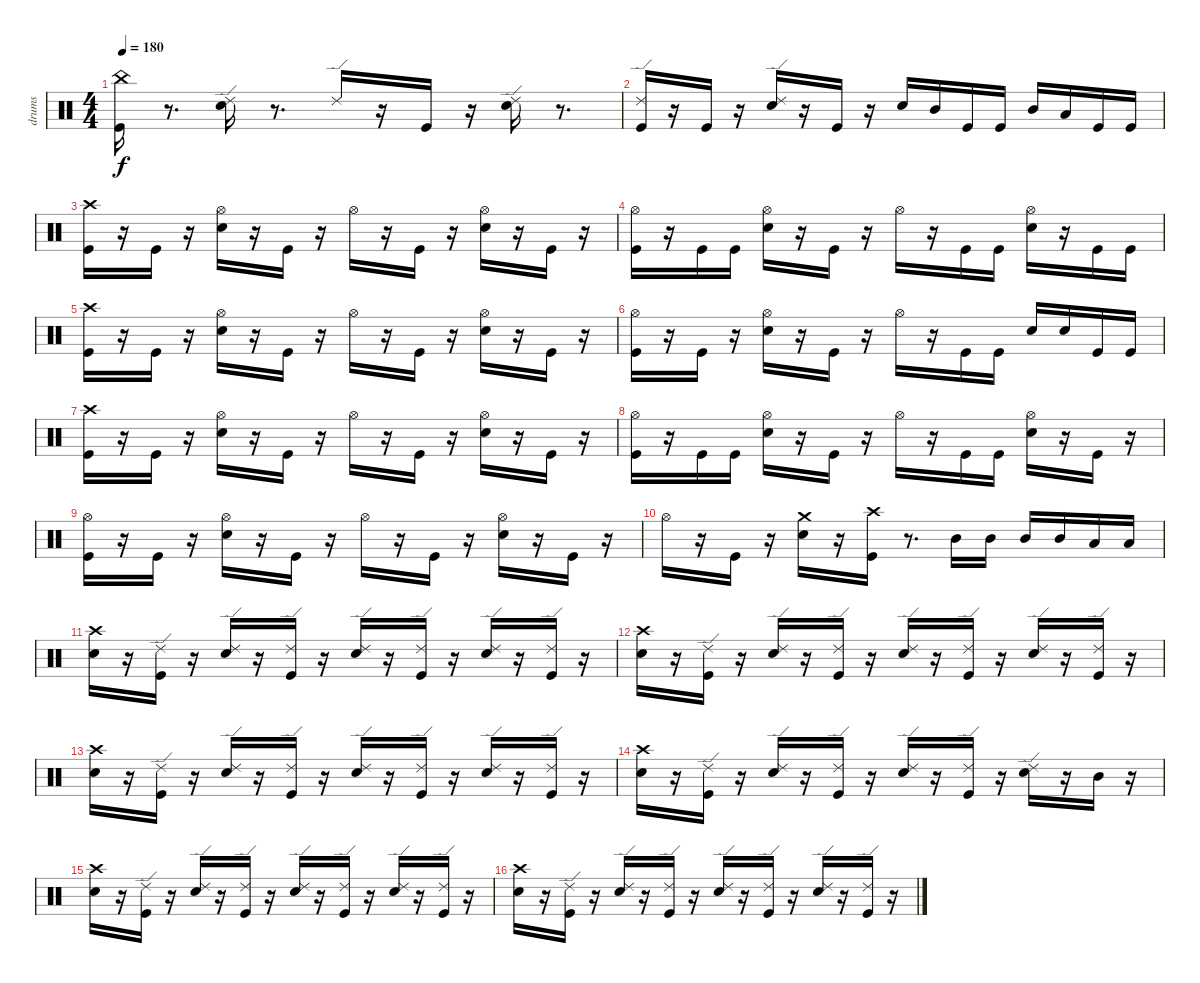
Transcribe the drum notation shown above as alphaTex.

\track ("drums" "drums") {instrument percussion}
\staff {score}
\articulation defaults
\ts (4 4)
\tempo 180
\clef neutral
\ks c
("China (hit)" "Kick (hit)").16{dy f} r.8{d} ("Ride (edge) 2" "Snare (hit) 2").16 r.8{d} "Ride (edge) 2".16 r.16 "Kick (hit)".16 r.16 ("Ride (edge) 2" "Snare (hit) 2").16 r.8{d} |
("Kick (hit)" "Ride (edge) 2").16 r.16 "Kick (hit)".16 r.16 ("Snare (hit) 2" "Ride (edge) 2").16 r.16 "Kick (hit)".16 r.16 "Snare (hit) 2".16 "Mid Tom (hit)".16 "Kick (hit)".16 "Kick (hit)".16 "Mid Tom (hit)".16 "Low Tom (hit)".16 "Kick (hit)".16 "Kick (hit)".16 |
("Crash high (hit)" "Kick (hit)").16 r.16 "Kick (hit)".16 r.16 ("Hi-Hat (open)" "Snare (hit) 2").16 r.16 "Kick (hit)".16 r.16 "Hi-Hat (open)".16 r.16 "Kick (hit)".16 r.16 ("Hi-Hat (open)" "Snare (hit) 2").16 r.16 "Kick (hit)".16 r.16 |
("Hi-Hat (open)" "Kick (hit)").16 r.16 "Kick (hit)".16 "Kick (hit)".16 ("Hi-Hat (open)" "Snare (hit) 2").16 r.16 "Kick (hit)".16 r.16 "Hi-Hat (open)".16 r.16 "Kick (hit)".16 "Kick (hit)".16 ("Hi-Hat (open)" "Snare (hit) 2").16 r.16 "Kick (hit)".16 "Kick (hit)".16 |
("Crash high (hit)" "Kick (hit)").16 r.16 "Kick (hit)".16 r.16 ("Hi-Hat (open)" "Snare (hit) 2").16 r.16 "Kick (hit)".16 r.16 "Hi-Hat (open)".16 r.16 "Kick (hit)".16 r.16 ("Hi-Hat (open)" "Snare (hit) 2").16 r.16 "Kick (hit)".16 r.16 |
("Hi-Hat (open)" "Kick (hit)").16 r.16 "Kick (hit)".16 r.16 ("Hi-Hat (open)" "Snare (hit) 2").16 r.16 "Kick (hit)".16 r.16 "Hi-Hat (open)".16 r.16 "Kick (hit)".16 "Kick (hit)".16 "Snare (hit) 2".16 "Snare (hit) 2".16 "Kick (hit)".16 "Kick (hit)".16 |
("Crash high (hit)" "Kick (hit)").16 r.16 "Kick (hit)".16 r.16 ("Hi-Hat (open)" "Snare (hit) 2").16 r.16 "Kick (hit)".16 r.16 "Hi-Hat (open)".16 r.16 "Kick (hit)".16 r.16 ("Hi-Hat (open)" "Snare (hit) 2").16 r.16 "Kick (hit)".16 r.16 |
("Hi-Hat (open)" "Kick (hit)").16 r.16 "Kick (hit)".16 "Kick (hit)".16 ("Hi-Hat (open)" "Snare (hit) 2").16 r.16 "Kick (hit)".16 r.16 "Hi-Hat (open)".16 r.16 "Kick (hit)".16 "Kick (hit)".16 ("Hi-Hat (open)" "Snare (hit) 2").16 r.16 "Kick (hit)".16 r.16 |
("Hi-Hat (open)" "Kick (hit)").16 r.16 "Kick (hit)".16 r.16 ("Hi-Hat (open)" "Snare (hit) 2").16 r.16 "Kick (hit)".16 r.16 "Hi-Hat (open)".16 r.16 "Kick (hit)".16 r.16 ("Snare (hit) 2" "Hi-Hat (open)").16 r.16 "Kick (hit)".16 r.16 |
"Hi-Hat (open)".16 r.16 "Kick (hit)".16 r.16 ("Crash medium (hit)" "Snare (hit) 2").16 r.16 ("Crash high (hit)" "Kick (hit)").16 r.8{d} "Mid Tom (hit)".16 "Mid Tom (hit)".16 "Mid Tom (hit)".16 "Mid Tom (hit)".16 "Low Tom (hit)".16 "Low Tom (hit)".16 |
("Crash high (hit)" "Snare (hit) 2").16 r.16 ("Ride (edge) 2" "Kick (hit)").16 r.16 ("Ride (edge) 2" "Snare (hit) 2").16 r.16 ("Ride (edge) 2" "Kick (hit)").16 r.16 ("Ride (edge) 2" "Snare (hit) 2").16 r.16 ("Ride (edge) 2" "Kick (hit)").16 r.16 ("Ride (edge) 2" "Snare (hit) 2").16 r.16 ("Ride (edge) 2" "Kick (hit)").16 r.16 |
("Crash high (hit)" "Snare (hit) 2").16 r.16 ("Ride (edge) 2" "Kick (hit)").16 r.16 ("Ride (edge) 2" "Snare (hit) 2").16 r.16 ("Ride (edge) 2" "Kick (hit)").16 r.16 ("Ride (edge) 2" "Snare (hit) 2").16 r.16 ("Ride (edge) 2" "Kick (hit)").16 r.16 ("Ride (edge) 2" "Snare (hit) 2").16 r.16 ("Ride (edge) 2" "Kick (hit)").16 r.16 |
("Crash high (hit)" "Snare (hit) 2").16 r.16 ("Ride (edge) 2" "Kick (hit)").16 r.16 ("Ride (edge) 2" "Snare (hit) 2").16 r.16 ("Ride (edge) 2" "Kick (hit)").16 r.16 ("Ride (edge) 2" "Snare (hit) 2").16 r.16 ("Ride (edge) 2" "Kick (hit)").16 r.16 ("Ride (edge) 2" "Snare (hit) 2").16 r.16 ("Ride (edge) 2" "Kick (hit)").16 r.16 |
("Crash high (hit)" "Snare (hit) 2").16 r.16 ("Ride (edge) 2" "Kick (hit)").16 r.16 ("Ride (edge) 2" "Snare (hit) 2").16 r.16 ("Ride (edge) 2" "Kick (hit)").16 r.16 ("Ride (edge) 2" "Snare (hit) 2").16 r.16 ("Ride (edge) 2" "Kick (hit)").16 r.16 ("Ride (edge) 2" "Snare (hit) 2").16 r.16 "Mid Tom (hit)".16 r.16 |
("Crash high (hit)" "Snare (hit) 2").16 r.16 ("Ride (edge) 2" "Kick (hit)").16 r.16 ("Ride (edge) 2" "Snare (hit) 2").16 r.16 ("Ride (edge) 2" "Kick (hit)").16 r.16 ("Ride (edge) 2" "Snare (hit) 2").16 r.16 ("Ride (edge) 2" "Kick (hit)").16 r.16 ("Ride (edge) 2" "Snare (hit) 2").16 r.16 ("Ride (edge) 2" "Kick (hit)").16 r.16 |
("Crash high (hit)" "Snare (hit) 2").16 r.16 ("Ride (edge) 2" "Kick (hit)").16 r.16 ("Ride (edge) 2" "Snare (hit) 2").16 r.16 ("Ride (edge) 2" "Kick (hit)").16 r.16 ("Ride (edge) 2" "Snare (hit) 2").16 r.16 ("Ride (edge) 2" "Kick (hit)").16 r.16 ("Ride (edge) 2" "Snare (hit) 2").16 r.16 ("Ride (edge) 2" "Kick (hit)").16 r.16
